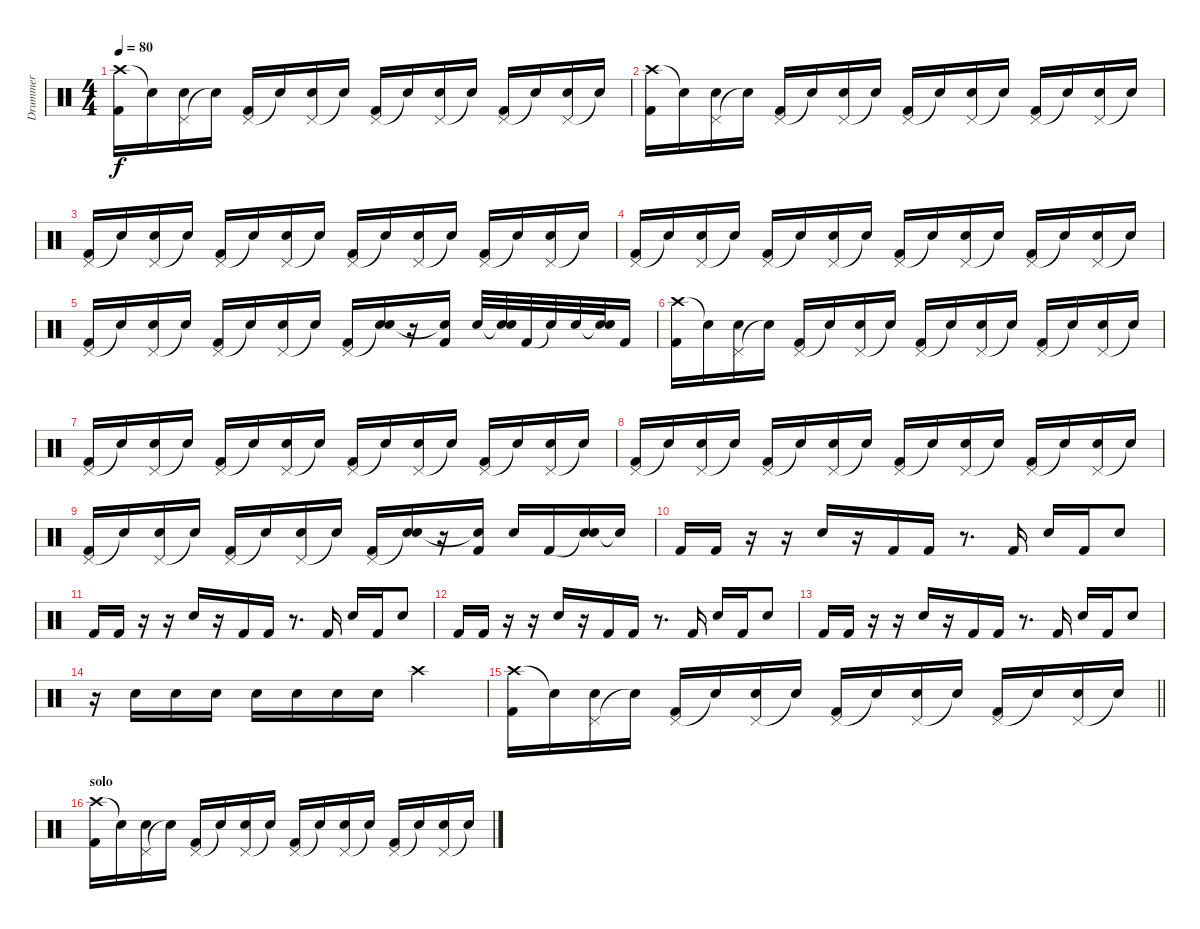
\track ("Drummer" "Drummer") {instrument percussion}
\staff {score}
\articulation defaults
\ts (4 4)
\tempo 80
\clef neutral
\ks c
("Crash high (hit)" "Kick (hit) 2").16{dy f} "Snare (hit)"{t}.16 ("Pedal Hi-Hat (hit)" "Electric Snare (hit)").16 "Snare (hit)"{t}.16 ("Pedal Hi-Hat (hit)" "Kick (hit) 2").16 "Snare (hit)"{t}.16 ("Pedal Hi-Hat (hit)" "Electric Snare (hit)").16 "Snare (hit)"{t}.16 ("Pedal Hi-Hat (hit)" "Kick (hit) 2").16 "Snare (hit)"{t}.16 ("Pedal Hi-Hat (hit)" "Electric Snare (hit)").16 "Snare (hit)"{t}.16 ("Pedal Hi-Hat (hit)" "Kick (hit) 2").16 "Snare (hit)"{t}.16 ("Pedal Hi-Hat (hit)" "Electric Snare (hit)").16 "Snare (hit)"{t}.16 |
("Crash high (hit)" "Kick (hit) 2").16 "Snare (hit)"{t}.16 ("Pedal Hi-Hat (hit)" "Electric Snare (hit)").16 "Snare (hit)"{t}.16 ("Pedal Hi-Hat (hit)" "Kick (hit) 2").16 "Snare (hit)"{t}.16 ("Pedal Hi-Hat (hit)" "Electric Snare (hit)").16 "Snare (hit)"{t}.16 ("Pedal Hi-Hat (hit)" "Kick (hit) 2").16 "Snare (hit)"{t}.16 ("Pedal Hi-Hat (hit)" "Electric Snare (hit)").16 "Snare (hit)"{t}.16 ("Pedal Hi-Hat (hit)" "Kick (hit) 2").16 "Snare (hit)"{t}.16 ("Pedal Hi-Hat (hit)" "Electric Snare (hit)").16 "Snare (hit)"{t}.16 |
("Pedal Hi-Hat (hit)" "Kick (hit) 2").16 "Snare (hit)"{t}.16 ("Pedal Hi-Hat (hit)" "Electric Snare (hit)").16 "Snare (hit)"{t}.16 ("Pedal Hi-Hat (hit)" "Kick (hit) 2").16 "Snare (hit)"{t}.16 ("Pedal Hi-Hat (hit)" "Electric Snare (hit)").16 "Snare (hit)"{t}.16 ("Pedal Hi-Hat (hit)" "Kick (hit) 2").16 "Snare (hit)"{t}.16 ("Pedal Hi-Hat (hit)" "Electric Snare (hit)").16 "Snare (hit)"{t}.16 ("Pedal Hi-Hat (hit)" "Kick (hit) 2").16 "Snare (hit)"{t}.16 ("Pedal Hi-Hat (hit)" "Electric Snare (hit)").16 "Snare (hit)"{t}.16 |
("Pedal Hi-Hat (hit)" "Kick (hit) 2").16 "Snare (hit)"{t}.16 ("Pedal Hi-Hat (hit)" "Electric Snare (hit)").16 "Snare (hit)"{t}.16 ("Pedal Hi-Hat (hit)" "Kick (hit) 2").16 "Snare (hit)"{t}.16 ("Pedal Hi-Hat (hit)" "Electric Snare (hit)").16 "Snare (hit)"{t}.16 ("Pedal Hi-Hat (hit)" "Kick (hit) 2").16 "Snare (hit)"{t}.16 ("Pedal Hi-Hat (hit)" "Electric Snare (hit)").16 "Snare (hit)"{t}.16 ("Pedal Hi-Hat (hit)" "Kick (hit) 2").16 "Snare (hit)"{t}.16 ("Pedal Hi-Hat (hit)" "Electric Snare (hit)").16 "Snare (hit)"{t}.16 |
("Pedal Hi-Hat (hit)" "Kick (hit) 2").16 "Snare (hit)"{t}.16 ("Pedal Hi-Hat (hit)" "Electric Snare (hit)").16 "Snare (hit)"{t}.16 ("Pedal Hi-Hat (hit)" "Kick (hit) 2").16 "Snare (hit)"{t}.16 ("Pedal Hi-Hat (hit)" "Electric Snare (hit)").16 "Snare (hit)"{t}.16 ("Pedal Hi-Hat (hit)" "Kick (hit) 2").16 ("Snare (hit)"{t} "Electric Snare (hit)").16 r.16 ("Snare (hit)"{t} "Kick (hit) 2").16 "Electric Snare (hit)".32 ("Snare (hit)"{t} "Electric Snare (hit)").32 "Kick (hit) 2".32 "Snare (hit)"{t}.32 "Electric Snare (hit)".32 ("Snare (hit)"{t} "Electric Snare (hit)").32 "Kick (hit) 2".16 |
("Crash high (hit)" "Kick (hit) 2").16 "Snare (hit)"{t}.16 ("Pedal Hi-Hat (hit)" "Electric Snare (hit)").16 "Snare (hit)"{t}.16 ("Pedal Hi-Hat (hit)" "Kick (hit) 2").16 "Snare (hit)"{t}.16 ("Pedal Hi-Hat (hit)" "Electric Snare (hit)").16 "Snare (hit)"{t}.16 ("Pedal Hi-Hat (hit)" "Kick (hit) 2").16 "Snare (hit)"{t}.16 ("Pedal Hi-Hat (hit)" "Electric Snare (hit)").16 "Snare (hit)"{t}.16 ("Pedal Hi-Hat (hit)" "Kick (hit) 2").16 "Snare (hit)"{t}.16 ("Pedal Hi-Hat (hit)" "Electric Snare (hit)").16 "Snare (hit)"{t}.16 |
("Pedal Hi-Hat (hit)" "Kick (hit) 2").16 "Snare (hit)"{t}.16 ("Pedal Hi-Hat (hit)" "Electric Snare (hit)").16 "Snare (hit)"{t}.16 ("Pedal Hi-Hat (hit)" "Kick (hit) 2").16 "Snare (hit)"{t}.16 ("Pedal Hi-Hat (hit)" "Electric Snare (hit)").16 "Snare (hit)"{t}.16 ("Pedal Hi-Hat (hit)" "Kick (hit) 2").16 "Snare (hit)"{t}.16 ("Pedal Hi-Hat (hit)" "Electric Snare (hit)").16 "Snare (hit)"{t}.16 ("Pedal Hi-Hat (hit)" "Kick (hit) 2").16 "Snare (hit)"{t}.16 ("Pedal Hi-Hat (hit)" "Electric Snare (hit)").16 "Snare (hit)"{t}.16 |
("Pedal Hi-Hat (hit)" "Kick (hit) 2").16 "Snare (hit)"{t}.16 ("Pedal Hi-Hat (hit)" "Electric Snare (hit)").16 "Snare (hit)"{t}.16 ("Pedal Hi-Hat (hit)" "Kick (hit) 2").16 "Snare (hit)"{t}.16 ("Pedal Hi-Hat (hit)" "Electric Snare (hit)").16 "Snare (hit)"{t}.16 ("Pedal Hi-Hat (hit)" "Kick (hit) 2").16 "Snare (hit)"{t}.16 ("Pedal Hi-Hat (hit)" "Electric Snare (hit)").16 "Snare (hit)"{t}.16 ("Pedal Hi-Hat (hit)" "Kick (hit) 2").16 "Snare (hit)"{t}.16 ("Pedal Hi-Hat (hit)" "Electric Snare (hit)").16 "Snare (hit)"{t}.16 |
("Pedal Hi-Hat (hit)" "Kick (hit) 2").16 "Snare (hit)"{t}.16 ("Pedal Hi-Hat (hit)" "Electric Snare (hit)").16 "Snare (hit)"{t}.16 ("Pedal Hi-Hat (hit)" "Kick (hit) 2").16 "Snare (hit)"{t}.16 ("Pedal Hi-Hat (hit)" "Electric Snare (hit)").16 "Snare (hit)"{t}.16 ("Pedal Hi-Hat (hit)" "Kick (hit) 2").16 ("Snare (hit)"{t} "Electric Snare (hit)").16 r.16 ("Snare (hit)"{t} "Kick (hit) 2").16 "Electric Snare (hit)".16 "Kick (hit) 2".16 ("Snare (hit)"{t} "Electric Snare (hit)").16 "Snare (hit)"{t}.16 |
"Kick (hit) 2".16 "Kick (hit) 2".16 r.16 r.16 "Electric Snare (hit)".16 r.16 "Kick (hit) 2".16 "Kick (hit) 2".16 r.8{d} "Kick (hit) 2".16 "Electric Snare (hit)".16 "Kick (hit) 2".16 "Electric Snare (hit)".8 |
"Kick (hit) 2".16 "Kick (hit) 2".16 r.16 r.16 "Electric Snare (hit)".16 r.16 "Kick (hit) 2".16 "Kick (hit) 2".16 r.8{d} "Kick (hit) 2".16 "Electric Snare (hit)".16 "Kick (hit) 2".16 "Electric Snare (hit)".8 |
"Kick (hit) 2".16 "Kick (hit) 2".16 r.16 r.16 "Electric Snare (hit)".16 r.16 "Kick (hit) 2".16 "Kick (hit) 2".16 r.8{d} "Kick (hit) 2".16 "Electric Snare (hit)".16 "Kick (hit) 2".16 "Electric Snare (hit)".8 |
"Kick (hit) 2".16 "Kick (hit) 2".16 r.16 r.16 "Electric Snare (hit)".16 r.16 "Kick (hit) 2".16 "Kick (hit) 2".16 r.8{d} "Kick (hit) 2".16 "Electric Snare (hit)".16 "Kick (hit) 2".16 "Electric Snare (hit)".8 |
r.16 "Electric Snare (hit)".16 "Electric Snare (hit)".16 "Electric Snare (hit)".16 "Electric Snare (hit)".16 "Electric Snare (hit)".16 "Electric Snare (hit)".16 "Electric Snare (hit)".16 "Crash high (hit)".2 |
\barLineRight lightlight
("Crash high (hit)" "Kick (hit) 2").16 "Snare (hit)"{t}.16 ("Pedal Hi-Hat (hit)" "Electric Snare (hit)").16 "Snare (hit)"{t}.16 ("Pedal Hi-Hat (hit)" "Kick (hit) 2").16 "Snare (hit)"{t}.16 ("Pedal Hi-Hat (hit)" "Electric Snare (hit)").16 "Snare (hit)"{t}.16 ("Pedal Hi-Hat (hit)" "Kick (hit) 2").16 "Snare (hit)"{t}.16 ("Pedal Hi-Hat (hit)" "Electric Snare (hit)").16 "Snare (hit)"{t}.16 ("Pedal Hi-Hat (hit)" "Kick (hit) 2").16 "Snare (hit)"{t}.16 ("Pedal Hi-Hat (hit)" "Electric Snare (hit)").16 "Snare (hit)"{t}.16 |
\section ("" "solo")
("Crash high (hit)" "Kick (hit) 2").16 "Snare (hit)"{t}.16 ("Pedal Hi-Hat (hit)" "Electric Snare (hit)").16 "Snare (hit)"{t}.16 ("Pedal Hi-Hat (hit)" "Kick (hit) 2").16 "Snare (hit)"{t}.16 ("Pedal Hi-Hat (hit)" "Electric Snare (hit)").16 "Snare (hit)"{t}.16 ("Pedal Hi-Hat (hit)" "Kick (hit) 2").16 "Snare (hit)"{t}.16 ("Pedal Hi-Hat (hit)" "Electric Snare (hit)").16 "Snare (hit)"{t}.16 ("Pedal Hi-Hat (hit)" "Kick (hit) 2").16 "Snare (hit)"{t}.16 ("Pedal Hi-Hat (hit)" "Electric Snare (hit)").16 "Snare (hit)"{t}.16
